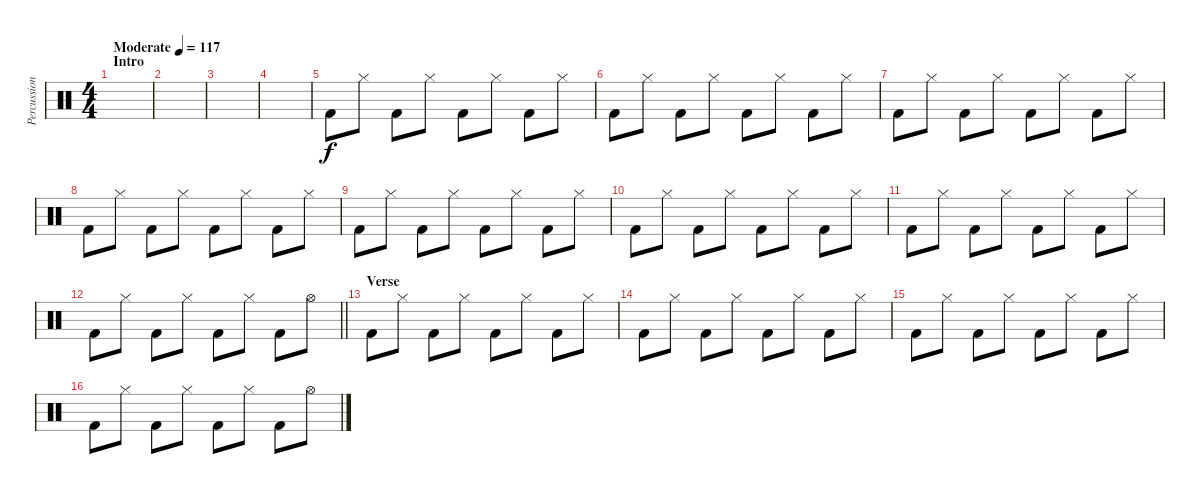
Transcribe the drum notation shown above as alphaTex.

\track ("Percussion" "Percussion") {instrument percussion}
\staff {score}
\articulation defaults
\ts (4 4)
\section ("" "Intro")
\tempo (117 "Moderate")
\clef neutral
\ks c
|
|
|
|
"Kick (hit) 2".8 "Hi-Hat (closed)".8 "Kick (hit) 2".8 "Hi-Hat (closed)".8 "Kick (hit) 2".8 "Hi-Hat (closed)".8 "Kick (hit) 2".8 "Hi-Hat (closed)".8 |
"Kick (hit) 2".8 "Hi-Hat (closed)".8 "Kick (hit) 2".8 "Hi-Hat (closed)".8 "Kick (hit) 2".8 "Hi-Hat (closed)".8 "Kick (hit) 2".8 "Hi-Hat (closed)".8 |
"Kick (hit) 2".8 "Hi-Hat (closed)".8 "Kick (hit) 2".8 "Hi-Hat (closed)".8 "Kick (hit) 2".8 "Hi-Hat (closed)".8 "Kick (hit) 2".8 "Hi-Hat (closed)".8 |
"Kick (hit) 2".8 "Hi-Hat (closed)".8 "Kick (hit) 2".8 "Hi-Hat (closed)".8 "Kick (hit) 2".8 "Hi-Hat (closed)".8 "Kick (hit) 2".8 "Hi-Hat (closed)".8 |
"Kick (hit) 2".8 "Hi-Hat (closed)".8 "Kick (hit) 2".8 "Hi-Hat (closed)".8 "Kick (hit) 2".8 "Hi-Hat (closed)".8 "Kick (hit) 2".8 "Hi-Hat (closed)".8 |
"Kick (hit) 2".8 "Hi-Hat (closed)".8 "Kick (hit) 2".8 "Hi-Hat (closed)".8 "Kick (hit) 2".8 "Hi-Hat (closed)".8 "Kick (hit) 2".8 "Hi-Hat (closed)".8 |
"Kick (hit) 2".8 "Hi-Hat (closed)".8 "Kick (hit) 2".8 "Hi-Hat (closed)".8 "Kick (hit) 2".8 "Hi-Hat (closed)".8 "Kick (hit) 2".8 "Hi-Hat (closed)".8 |
\barLineRight lightlight "Kick (hit) 2".8 "Hi-Hat (closed)".8 "Kick (hit) 2".8 "Hi-Hat (closed)".8 "Kick (hit) 2".8 "Hi-Hat (closed)".8 "Kick (hit) 2".8 "Hi-Hat (open)".8
|
\section ("" "Verse")
"Kick (hit) 2".8 "Hi-Hat (closed)".8 "Kick (hit) 2".8 "Hi-Hat (closed)".8 "Kick (hit) 2".8 "Hi-Hat (closed)".8 "Kick (hit) 2".8 "Hi-Hat (closed)".8 |
"Kick (hit) 2".8 "Hi-Hat (closed)".8 "Kick (hit) 2".8 "Hi-Hat (closed)".8 "Kick (hit) 2".8 "Hi-Hat (closed)".8 "Kick (hit) 2".8 "Hi-Hat (closed)".8 |
"Kick (hit) 2".8 "Hi-Hat (closed)".8 "Kick (hit) 2".8 "Hi-Hat (closed)".8 "Kick (hit) 2".8 "Hi-Hat (closed)".8 "Kick (hit) 2".8 "Hi-Hat (closed)".8 |
"Kick (hit) 2".8 "Hi-Hat (closed)".8 "Kick (hit) 2".8 "Hi-Hat (closed)".8 "Kick (hit) 2".8 "Hi-Hat (closed)".8 "Kick (hit) 2".8 "Hi-Hat (open)".8
